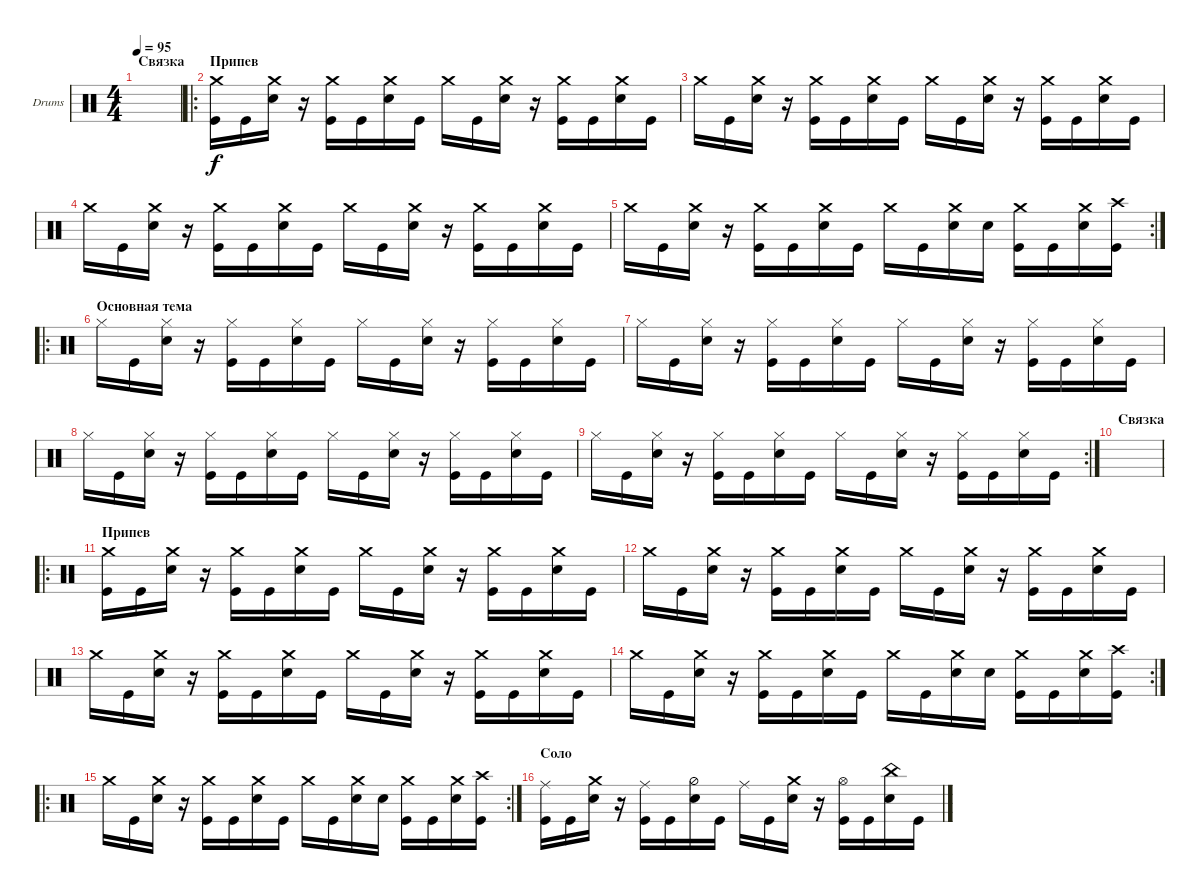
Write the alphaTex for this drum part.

\defaultSystemsLayout 4
\bracketExtendMode groupsimilarinstruments
\firstSystemTrackNameOrientation horizontal
\otherSystemsTrackNameOrientation horizontal
\track ("Drumkit" "Drums") {instrument percussion}
\staff {score}
\articulation defaults
\ts (4 4)
\section ("" "Связка")
\tempo 95
\clef neutral
\scale
0.301075
\ks c
|
\ro
\section ("" "Припев")
\scale
0.365591 ("Kick (hit)" "Crash medium (hit)").16 "Kick (hit)".16 ("Crash medium (hit)" "Snare (hit) 2").16 r.16 ("Crash medium (hit)" "Kick (hit)").16 "Kick (hit)".16 ("Crash medium (hit)" "Snare (hit) 2").16 "Kick (hit)".16 "Crash medium (hit)".16 "Kick (hit)".16 ("Crash medium (hit)" "Snare (hit) 2").16 r.16 ("Crash medium (hit)" "Kick (hit)").16 "Kick (hit)".16 ("Crash medium (hit)" "Snare (hit) 2").16 "Kick (hit)".16 |
\scale
0.321839 "Crash medium (hit)".16 "Kick (hit)".16 ("Crash medium (hit)" "Snare (hit) 2").16 r.16 ("Crash medium (hit)" "Kick (hit)").16 "Kick (hit)".16 ("Crash medium (hit)" "Snare (hit) 2").16 "Kick (hit)".16 "Crash medium (hit)".16 "Kick (hit)".16 ("Crash medium (hit)" "Snare (hit) 2").16 r.16 ("Crash medium (hit)" "Kick (hit)").16 "Kick (hit)".16 ("Crash medium (hit)" "Snare (hit) 2").16 "Kick (hit)".16 |
\scale
0.321839 "Crash medium (hit)".16 "Kick (hit)".16 ("Crash medium (hit)" "Snare (hit) 2").16 r.16 ("Crash medium (hit)" "Kick (hit)").16 "Kick (hit)".16 ("Crash medium (hit)" "Snare (hit) 2").16 "Kick (hit)".16 "Crash medium (hit)".16 "Kick (hit)".16 ("Crash medium (hit)" "Snare (hit) 2").16 r.16 ("Crash medium (hit)" "Kick (hit)").16 "Kick (hit)".16 ("Crash medium (hit)" "Snare (hit) 2").16 "Kick (hit)".16 |
\rc 2
\scale
0.356322 "Crash medium (hit)".16 "Kick (hit)".16 ("Crash medium (hit)" "Snare (hit) 2").16 r.16 ("Crash medium (hit)" "Kick (hit)").16 "Kick (hit)".16 ("Crash medium (hit)" "Snare (hit) 2").16 "Kick (hit)".16 "Crash medium (hit)".16 "Kick (hit)".16 ("Crash medium (hit)" "Snare (hit) 2").16 "Snare (hit) 2".16 ("Crash medium (hit)" "Kick (hit)").16 "Kick (hit)".16 ("Crash medium (hit)" "Snare (hit) 2").16 ("Crash high (hit)" "Kick (hit)").16 |
\ro
\section ("" "Основная тема")
\scale
0.377778 "Hi-Hat (closed)".16 "Kick (hit)".16 ("Hi-Hat (closed)" "Snare (hit) 2").16 r.16 ("Hi-Hat (closed)" "Kick (hit)").16 "Kick (hit)".16 ("Hi-Hat (closed)" "Snare (hit) 2").16 "Kick (hit)".16 "Hi-Hat (closed)".16 "Kick (hit)".16 ("Hi-Hat (closed)" "Snare (hit) 2").16 r.16 ("Hi-Hat (closed)" "Kick (hit)").16 "Kick (hit)".16 ("Hi-Hat (closed)" "Snare (hit) 2").16 "Kick (hit)".16 |
\scale
0.311111 "Hi-Hat (closed)".16 "Kick (hit)".16 ("Hi-Hat (closed)" "Snare (hit) 2").16 r.16 ("Hi-Hat (closed)" "Kick (hit)").16 "Kick (hit)".16 ("Hi-Hat (closed)" "Snare (hit) 2").16 "Kick (hit)".16 "Hi-Hat (closed)".16 "Kick (hit)".16 ("Hi-Hat (closed)" "Snare (hit) 2").16 r.16 ("Hi-Hat (closed)" "Kick (hit)").16 "Kick (hit)".16 ("Hi-Hat (closed)" "Snare (hit) 2").16 "Kick (hit)".16 |
\scale
0.311111 "Hi-Hat (closed)".16 "Kick (hit)".16 ("Hi-Hat (closed)" "Snare (hit) 2").16 r.16 ("Hi-Hat (closed)" "Kick (hit)").16 "Kick (hit)".16 ("Hi-Hat (closed)" "Snare (hit) 2").16 "Kick (hit)".16 "Hi-Hat (closed)".16 "Kick (hit)".16 ("Hi-Hat (closed)" "Snare (hit) 2").16 r.16 ("Hi-Hat (closed)" "Kick (hit)").16 "Kick (hit)".16 ("Hi-Hat (closed)" "Snare (hit) 2").16 "Kick (hit)".16 |
\rc 2
\scale
0.333333 "Hi-Hat (closed)".16 "Kick (hit)".16 ("Hi-Hat (closed)" "Snare (hit) 2").16 r.16 ("Hi-Hat (closed)" "Kick (hit)").16 "Kick (hit)".16 ("Hi-Hat (closed)" "Snare (hit) 2").16 "Kick (hit)".16 "Hi-Hat (closed)".16 "Kick (hit)".16 ("Hi-Hat (closed)" "Snare (hit) 2").16 r.16 ("Hi-Hat (closed)" "Kick (hit)").16 "Kick (hit)".16 ("Hi-Hat (closed)" "Snare (hit) 2").16 "Kick (hit)".16 |
\section ("" "Связка")
\scale
0.301075 |
\ro
\section ("" "Припев")
\scale
0.365591 ("Kick (hit)" "Crash medium (hit)").16 "Kick (hit)".16 ("Crash medium (hit)" "Snare (hit) 2").16 r.16 ("Crash medium (hit)" "Kick (hit)").16 "Kick (hit)".16 ("Crash medium (hit)" "Snare (hit) 2").16 "Kick (hit)".16 "Crash medium (hit)".16 "Kick (hit)".16 ("Crash medium (hit)" "Snare (hit) 2").16 r.16 ("Crash medium (hit)" "Kick (hit)").16 "Kick (hit)".16 ("Crash medium (hit)" "Snare (hit) 2").16 "Kick (hit)".16 |
\scale
0.321839 "Crash medium (hit)".16 "Kick (hit)".16 ("Crash medium (hit)" "Snare (hit) 2").16 r.16 ("Crash medium (hit)" "Kick (hit)").16 "Kick (hit)".16 ("Crash medium (hit)" "Snare (hit) 2").16 "Kick (hit)".16 "Crash medium (hit)".16 "Kick (hit)".16 ("Crash medium (hit)" "Snare (hit) 2").16 r.16 ("Crash medium (hit)" "Kick (hit)").16 "Kick (hit)".16 ("Crash medium (hit)" "Snare (hit) 2").16 "Kick (hit)".16 |
\scale
0.321839 "Crash medium (hit)".16 "Kick (hit)".16 ("Crash medium (hit)" "Snare (hit) 2").16 r.16 ("Crash medium (hit)" "Kick (hit)").16 "Kick (hit)".16 ("Crash medium (hit)" "Snare (hit) 2").16 "Kick (hit)".16 "Crash medium (hit)".16 "Kick (hit)".16 ("Crash medium (hit)" "Snare (hit) 2").16 r.16 ("Crash medium (hit)" "Kick (hit)").16 "Kick (hit)".16 ("Crash medium (hit)" "Snare (hit) 2").16 "Kick (hit)".16 |
\rc 2
\scale
0.356322 "Crash medium (hit)".16 "Kick (hit)".16 ("Crash medium (hit)" "Snare (hit) 2").16 r.16 ("Crash medium (hit)" "Kick (hit)").16 "Kick (hit)".16 ("Crash medium (hit)" "Snare (hit) 2").16 "Kick (hit)".16 "Crash medium (hit)".16 "Kick (hit)".16 ("Crash medium (hit)" "Snare (hit) 2").16 "Snare (hit) 2".16 ("Crash medium (hit)" "Kick (hit)").16 "Kick (hit)".16 ("Crash medium (hit)" "Snare (hit) 2").16 ("Crash high (hit)" "Kick (hit)").16 |
\ro
\rc 2
\scale
0.397849 "Crash medium (hit)".16 "Kick (hit)".16 ("Crash medium (hit)" "Snare (hit) 2").16 r.16 ("Crash medium (hit)" "Kick (hit)").16 "Kick (hit)".16 ("Crash medium (hit)" "Snare (hit) 2").16 "Kick (hit)".16 "Crash medium (hit)".16 "Kick (hit)".16 ("Crash medium (hit)" "Snare (hit) 2").16 "Snare (hit) 2".16 ("Crash medium (hit)" "Kick (hit)").16 "Kick (hit)".16 ("Crash medium (hit)" "Snare (hit) 2").16 ("Crash high (hit)" "Kick (hit)").16 |
\section ("" "Соло")
\scale
0.301075 ("Kick (hit)" "Ride (middle)").16 "Kick (hit)".16 ("Crash medium (hit)" "Snare (hit) 2").16 r.16 ("Kick (hit)" "Ride (middle)").16 "Kick (hit)".16 ("Snare (hit) 2" "Hi-Hat (half)").16 "Kick (hit)".16 "Ride (middle)".16 "Kick (hit)".16 ("Crash medium (hit)" "Snare (hit) 2").16 r.16 ("Kick (hit)" "Hi-Hat (open)").16 "Kick (hit)".16 ("Snare (hit) 2" "China (hit)").16 "Kick (hit)".16
